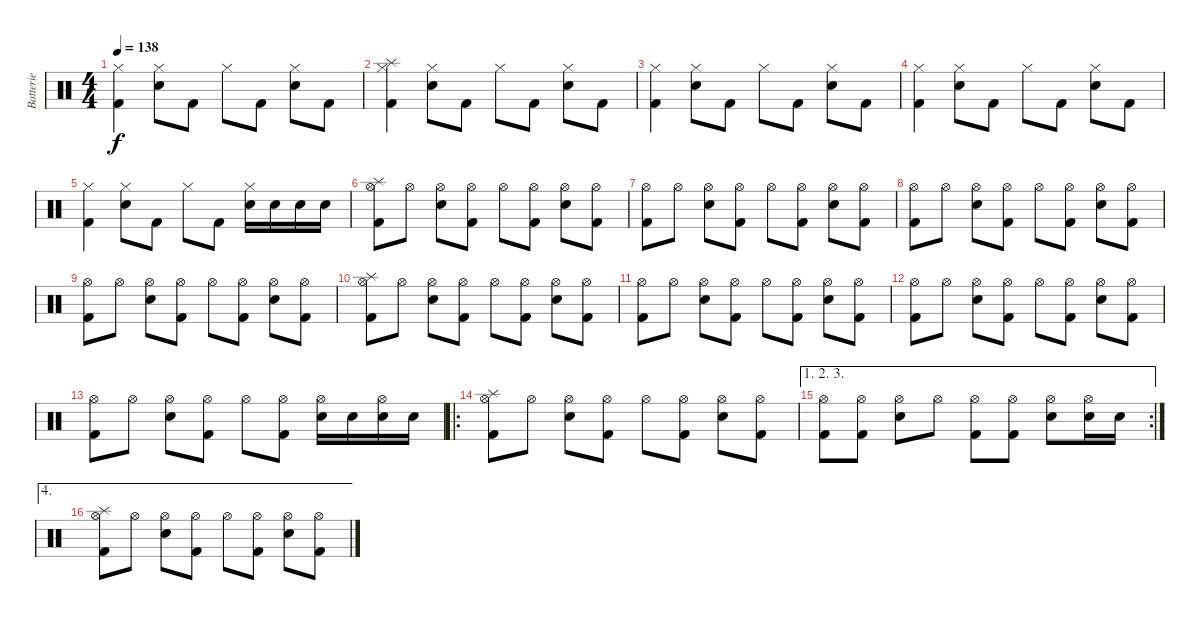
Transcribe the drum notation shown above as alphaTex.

\track ("Batterie" "Batterie") {instrument percussion}
\staff {score}
\articulation defaults
\ts (4 4)
\tempo 138
\clef neutral
\ks c
("Hi-Hat (closed)" "Kick (hit) 2").4{dy f} ("Hi-Hat (closed)" "Snare (hit) 2").8 "Kick (hit) 2".8 "Hi-Hat (closed)".8 "Kick (hit) 2".8 ("Hi-Hat (closed)" "Snare (hit) 2").8 "Kick (hit) 2".8 |
("Splash (hit)" "Hi-Hat (closed)" "Kick (hit) 2").4 ("Hi-Hat (closed)" "Snare (hit) 2").8 "Kick (hit) 2".8 "Hi-Hat (closed)".8 "Kick (hit) 2".8 ("Hi-Hat (closed)" "Snare (hit) 2").8 "Kick (hit) 2".8 |
("Hi-Hat (closed)" "Kick (hit) 2").4 ("Hi-Hat (closed)" "Snare (hit) 2").8 "Kick (hit) 2".8 "Hi-Hat (closed)".8 "Kick (hit) 2".8 ("Hi-Hat (closed)" "Snare (hit) 2").8 "Kick (hit) 2".8 |
("Hi-Hat (closed)" "Kick (hit) 2").4 ("Hi-Hat (closed)" "Snare (hit) 2").8 "Kick (hit) 2".8 "Hi-Hat (closed)".8 "Kick (hit) 2".8 ("Hi-Hat (closed)" "Snare (hit) 2").8 "Kick (hit) 2".8 |
("Hi-Hat (closed)" "Kick (hit) 2").4 ("Hi-Hat (closed)" "Snare (hit) 2").8 "Kick (hit) 2".8 "Hi-Hat (closed)".8 "Kick (hit) 2".8 ("Hi-Hat (closed)" "Snare (hit) 2").16 "Snare (hit) 2".16 "Snare (hit) 2".16 "Snare (hit) 2".16 |
("Splash (hit)" "Hi-Hat (open)" "Kick (hit) 2").8 "Hi-Hat (open)".8 ("Hi-Hat (open)" "Snare (hit) 2").8 ("Hi-Hat (open)" "Kick (hit) 2").8 "Hi-Hat (open)".8 ("Hi-Hat (open)" "Kick (hit) 2").8 ("Hi-Hat (open)" "Snare (hit) 2").8 ("Hi-Hat (open)" "Kick (hit) 2").8 |
("Hi-Hat (open)" "Kick (hit) 2").8 "Hi-Hat (open)".8 ("Hi-Hat (open)" "Snare (hit) 2").8 ("Hi-Hat (open)" "Kick (hit) 2").8 "Hi-Hat (open)".8 ("Hi-Hat (open)" "Kick (hit) 2").8 ("Hi-Hat (open)" "Snare (hit) 2").8 ("Hi-Hat (open)" "Kick (hit) 2").8 |
("Hi-Hat (open)" "Kick (hit) 2").8 "Hi-Hat (open)".8 ("Hi-Hat (open)" "Snare (hit) 2").8 ("Hi-Hat (open)" "Kick (hit) 2").8 "Hi-Hat (open)".8 ("Hi-Hat (open)" "Kick (hit) 2").8 ("Hi-Hat (open)" "Snare (hit) 2").8 ("Hi-Hat (open)" "Kick (hit) 2").8 |
("Hi-Hat (open)" "Kick (hit) 2").8 "Hi-Hat (open)".8 ("Hi-Hat (open)" "Snare (hit) 2").8 ("Hi-Hat (open)" "Kick (hit) 2").8 "Hi-Hat (open)".8 ("Hi-Hat (open)" "Kick (hit) 2").8 ("Hi-Hat (open)" "Snare (hit) 2").8 ("Hi-Hat (open)" "Kick (hit) 2").8 |
("Splash (hit)" "Hi-Hat (open)" "Kick (hit) 2").8 "Hi-Hat (open)".8 ("Hi-Hat (open)" "Snare (hit) 2").8 ("Hi-Hat (open)" "Kick (hit) 2").8 "Hi-Hat (open)".8 ("Hi-Hat (open)" "Kick (hit) 2").8 ("Hi-Hat (open)" "Snare (hit) 2").8 ("Hi-Hat (open)" "Kick (hit) 2").8 |
("Hi-Hat (open)" "Kick (hit) 2").8 "Hi-Hat (open)".8 ("Hi-Hat (open)" "Snare (hit) 2").8 ("Hi-Hat (open)" "Kick (hit) 2").8 "Hi-Hat (open)".8 ("Hi-Hat (open)" "Kick (hit) 2").8 ("Hi-Hat (open)" "Snare (hit) 2").8 ("Hi-Hat (open)" "Kick (hit) 2").8 |
("Hi-Hat (open)" "Kick (hit) 2").8 "Hi-Hat (open)".8 ("Hi-Hat (open)" "Snare (hit) 2").8 ("Hi-Hat (open)" "Kick (hit) 2").8 "Hi-Hat (open)".8 ("Hi-Hat (open)" "Kick (hit) 2").8 ("Hi-Hat (open)" "Snare (hit) 2").8 ("Hi-Hat (open)" "Kick (hit) 2").8 |
("Hi-Hat (open)" "Kick (hit) 2").8 "Hi-Hat (open)".8 ("Hi-Hat (open)" "Snare (hit) 2").8 ("Hi-Hat (open)" "Kick (hit) 2").8 "Hi-Hat (open)".8 ("Hi-Hat (open)" "Kick (hit) 2").8 ("Hi-Hat (open)" "Snare (hit) 2").16 "Snare (hit) 2".16 ("Hi-Hat (open)" "Snare (hit) 2").16 "Snare (hit) 2".16 |
\ro
("Splash (hit)" "Hi-Hat (open)" "Kick (hit) 2").8 "Hi-Hat (open)".8 ("Hi-Hat (open)" "Snare (hit) 2").8 ("Hi-Hat (open)" "Kick (hit) 2").8 "Hi-Hat (open)".8 ("Hi-Hat (open)" "Kick (hit) 2").8 ("Hi-Hat (open)" "Snare (hit) 2").8 ("Hi-Hat (open)" "Kick (hit) 2").8 |
\ae (1 2 3)
\rc 2
("Hi-Hat (open)" "Kick (hit) 2").8 ("Hi-Hat (open)" "Kick (hit) 2").8 ("Hi-Hat (open)" "Snare (hit) 2").8 "Hi-Hat (open)".8 ("Hi-Hat (open)" "Kick (hit) 2").8 ("Hi-Hat (open)" "Kick (hit) 2").8 ("Hi-Hat (open)" "Snare (hit) 2").8 ("Hi-Hat (open)" "Snare (hit) 2").16 "Snare (hit) 2".16 |
\ae 4
("Splash (hit)" "Hi-Hat (open)" "Kick (hit) 2").8 "Hi-Hat (open)".8 ("Hi-Hat (open)" "Snare (hit) 2").8 ("Hi-Hat (open)" "Kick (hit) 2").8 "Hi-Hat (open)".8 ("Hi-Hat (open)" "Kick (hit) 2").8 ("Hi-Hat (open)" "Snare (hit) 2").8 ("Hi-Hat (open)" "Kick (hit) 2").8
